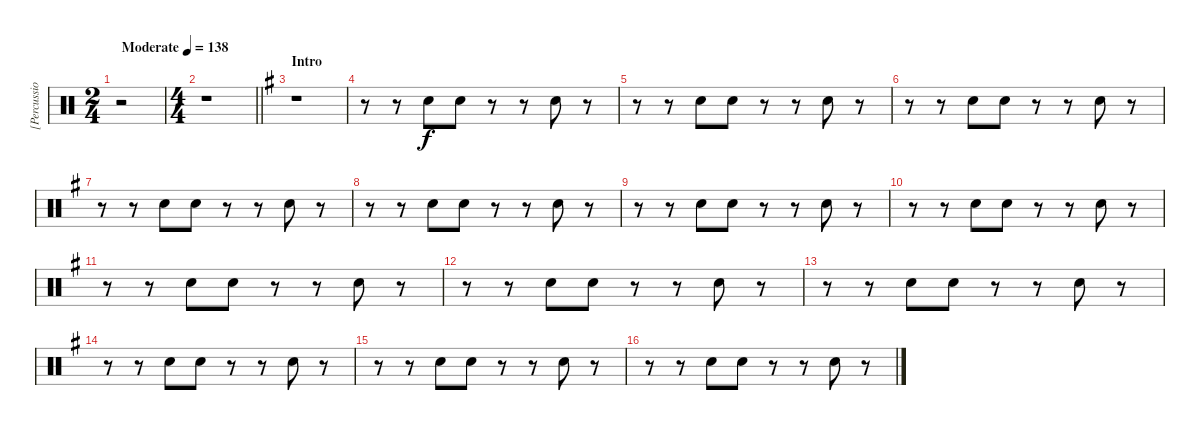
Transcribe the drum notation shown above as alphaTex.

\track ("[Percussion]" "[Percussio") {instrument percussion}
\staff {score}
\articulation defaults
\ts (2 4)
\tempo (138 "Moderate")
\clef neutral
\ks c
r.2{dy f} |
\ts (4 4)
\barLineRight lightlight
r.1 |
\section ("" "Intro")
\ks eminor
r.1{volume 12} |
r.8 r.8 "Hand Clap (hit)".8 "Hand Clap (hit)".8 r.8 r.8 "Hand Clap (hit)".8 r.8 |
r.8 r.8 "Hand Clap (hit)".8 "Hand Clap (hit)".8 r.8 r.8 "Hand Clap (hit)".8 r.8 |
r.8 r.8 "Hand Clap (hit)".8 "Hand Clap (hit)".8 r.8 r.8 "Hand Clap (hit)".8 r.8 |
r.8 r.8 "Hand Clap (hit)".8 "Hand Clap (hit)".8 r.8 r.8 "Hand Clap (hit)".8 r.8 |
r.8 r.8 "Hand Clap (hit)".8 "Hand Clap (hit)".8 r.8 r.8 "Hand Clap (hit)".8 r.8 |
r.8 r.8 "Hand Clap (hit)".8 "Hand Clap (hit)".8 r.8 r.8 "Hand Clap (hit)".8 r.8 |
r.8 r.8 "Hand Clap (hit)".8 "Hand Clap (hit)".8 r.8 r.8 "Hand Clap (hit)".8 r.8 |
r.8 r.8 "Hand Clap (hit)".8 "Hand Clap (hit)".8 r.8 r.8 "Hand Clap (hit)".8 r.8 |
r.8 r.8 "Hand Clap (hit)".8 "Hand Clap (hit)".8 r.8 r.8 "Hand Clap (hit)".8 r.8 |
r.8 r.8 "Hand Clap (hit)".8 "Hand Clap (hit)".8 r.8 r.8 "Hand Clap (hit)".8 r.8 |
r.8 r.8 "Hand Clap (hit)".8 "Hand Clap (hit)".8 r.8 r.8 "Hand Clap (hit)".8 r.8 |
r.8 r.8 "Hand Clap (hit)".8 "Hand Clap (hit)".8 r.8 r.8 "Hand Clap (hit)".8 r.8 |
r.8 r.8 "Hand Clap (hit)".8 "Hand Clap (hit)".8 r.8 r.8 "Hand Clap (hit)".8 r.8
